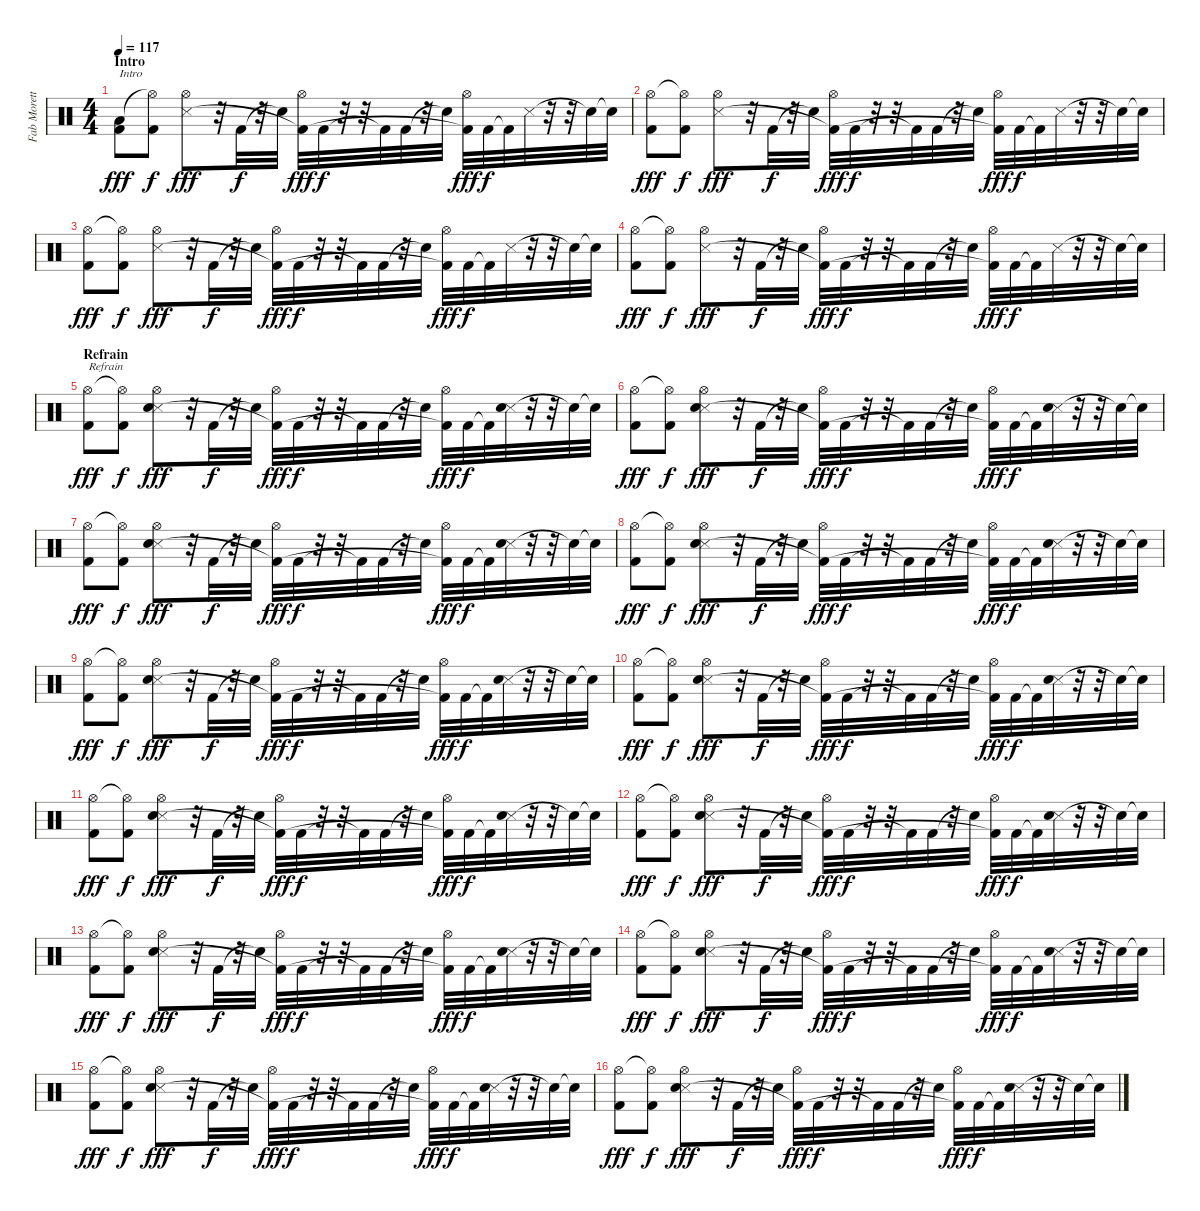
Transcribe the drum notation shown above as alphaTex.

\track ("Fab Moretti" "Fab Morett") {instrument percussion}
\staff {score}
\articulation defaults
\ts (4 4)
\section ("" "Intro")
\tempo 117
\clef neutral
\ks c
("Low Tom (hit)" "Kick (hit) 2").8{txt "Intro" dy fff} ("Hi-Hat (open)"{t} "Kick (hit) 2").8{dy f} ("Hi-Hat (open)" "Snare (side stick) 3").8{dy fff} r.32 "Kick (hit) 2".32{dy f} r.32 "Snare (hit)"{t}.32 ("Hi-Hat (open)" "Kick (hit) 2"{t}).32{dy fff} "Kick (hit) 2".32{dy f} r.32 r.32 "Kick (hit) 2"{t}.32 "Kick (hit) 2".32 r.32 "Snare (hit)"{t}.32 ("Hi-Hat (open)" "Kick (hit) 2"{t}).32{dy fff} "Kick (hit) 2".32{dy f} "Kick (hit) 2"{t}.32 "Snare (side stick) 3".32 r.32 r.32 "Snare (hit)"{t}.32 "Snare (hit)"{t}.32 |
("Hi-Hat (open)" "Kick (hit) 2").8{dy fff} ("Hi-Hat (open)"{t} "Kick (hit) 2").8{dy f} ("Hi-Hat (open)" "Snare (side stick) 3").8{dy fff} r.32 "Kick (hit) 2".32{dy f} r.32 "Snare (hit)"{t}.32 ("Hi-Hat (open)" "Kick (hit) 2"{t}).32{dy fff} "Kick (hit) 2".32{dy f} r.32 r.32 "Kick (hit) 2"{t}.32 "Kick (hit) 2".32 r.32 "Snare (hit)"{t}.32 ("Hi-Hat (open)" "Kick (hit) 2"{t}).32{dy fff} "Kick (hit) 2".32{dy f} "Kick (hit) 2"{t}.32 "Snare (side stick) 3".32 r.32 r.32 "Snare (hit)"{t}.32 "Snare (hit)"{t}.32 |
("Hi-Hat (open)" "Kick (hit) 2").8{dy fff} ("Hi-Hat (open)"{t} "Kick (hit) 2").8{dy f} ("Hi-Hat (open)" "Snare (side stick) 3").8{dy fff} r.32 "Kick (hit) 2".32{dy f} r.32 "Snare (hit)"{t}.32 ("Hi-Hat (open)" "Kick (hit) 2"{t}).32{dy fff} "Kick (hit) 2".32{dy f} r.32 r.32 "Kick (hit) 2"{t}.32 "Kick (hit) 2".32 r.32 "Snare (hit)"{t}.32 ("Hi-Hat (open)" "Kick (hit) 2"{t}).32{dy fff} "Kick (hit) 2".32{dy f} "Kick (hit) 2"{t}.32 "Snare (side stick) 3".32 r.32 r.32 "Snare (hit)"{t}.32 "Snare (hit)"{t}.32 |
("Hi-Hat (open)" "Kick (hit) 2").8{dy fff} ("Hi-Hat (open)"{t} "Kick (hit) 2").8{dy f} ("Hi-Hat (open)" "Snare (side stick) 3").8{dy fff} r.32 "Kick (hit) 2".32{dy f} r.32 "Snare (hit)"{t}.32 ("Hi-Hat (open)" "Kick (hit) 2"{t}).32{dy fff} "Kick (hit) 2".32{dy f} r.32 r.32 "Kick (hit) 2"{t}.32 "Kick (hit) 2".32 r.32 "Snare (hit)"{t}.32 ("Hi-Hat (open)" "Kick (hit) 2"{t}).32{dy fff} "Kick (hit) 2".32{dy f} "Kick (hit) 2"{t}.32 "Snare (side stick) 3".32 r.32 r.32 "Snare (hit)"{t}.32 "Snare (hit)"{t}.32 |
\section ("" "Refrain")
("Hi-Hat (open)" "Kick (hit) 2").8{txt "Refrain" dy fff} ("Hi-Hat (open)"{t} "Kick (hit) 2").8{dy f} ("Hi-Hat (open)" "Snare (side stick) 3" "Snare (hit) 2").8{dy fff} r.32 "Kick (hit) 2".32{dy f} r.32 "Snare (hit)"{t}.32 ("Hi-Hat (open)" "Kick (hit) 2"{t}).32{dy fff} "Kick (hit) 2".32{dy f} r.32 r.32 "Kick (hit) 2"{t}.32 "Kick (hit) 2".32 r.32 "Snare (hit)"{t}.32 ("Hi-Hat (open)" "Kick (hit) 2"{t}).32{dy fff} "Kick (hit) 2".32{dy f} "Kick (hit) 2"{t}.32 ("Snare (side stick) 3" "Snare (hit) 2").32 r.32 r.32 "Snare (hit)"{t}.32 "Snare (hit)"{t}.32 |
("Hi-Hat (open)" "Kick (hit) 2").8{dy fff} ("Hi-Hat (open)"{t} "Kick (hit) 2").8{dy f} ("Hi-Hat (open)" "Snare (side stick) 3" "Snare (hit) 2").8{dy fff} r.32 "Kick (hit) 2".32{dy f} r.32 "Snare (hit)"{t}.32 ("Hi-Hat (open)" "Kick (hit) 2"{t}).32{dy fff} "Kick (hit) 2".32{dy f} r.32 r.32 "Kick (hit) 2"{t}.32 "Kick (hit) 2".32 r.32 "Snare (hit)"{t}.32 ("Hi-Hat (open)" "Kick (hit) 2"{t}).32{dy fff} "Kick (hit) 2".32{dy f} "Kick (hit) 2"{t}.32 ("Snare (side stick) 3" "Snare (hit) 2").32 r.32 r.32 "Snare (hit)"{t}.32 "Snare (hit)"{t}.32 |
("Hi-Hat (open)" "Kick (hit) 2").8{dy fff} ("Hi-Hat (open)"{t} "Kick (hit) 2").8{dy f} ("Hi-Hat (open)" "Snare (side stick) 3" "Snare (hit) 2").8{dy fff} r.32 "Kick (hit) 2".32{dy f} r.32 "Snare (hit)"{t}.32 ("Hi-Hat (open)" "Kick (hit) 2"{t}).32{dy fff} "Kick (hit) 2".32{dy f} r.32 r.32 "Kick (hit) 2"{t}.32 "Kick (hit) 2".32 r.32 "Snare (hit)"{t}.32 ("Hi-Hat (open)" "Kick (hit) 2"{t}).32{dy fff} "Kick (hit) 2".32{dy f} "Kick (hit) 2"{t}.32 ("Snare (side stick) 3" "Snare (hit) 2").32 r.32 r.32 "Snare (hit)"{t}.32 "Snare (hit)"{t}.32 |
("Hi-Hat (open)" "Kick (hit) 2").8{dy fff} ("Hi-Hat (open)"{t} "Kick (hit) 2").8{dy f} ("Hi-Hat (open)" "Snare (side stick) 3" "Snare (hit) 2").8{dy fff} r.32 "Kick (hit) 2".32{dy f} r.32 "Snare (hit)"{t}.32 ("Hi-Hat (open)" "Kick (hit) 2"{t}).32{dy fff} "Kick (hit) 2".32{dy f} r.32 r.32 "Kick (hit) 2"{t}.32 "Kick (hit) 2".32 r.32 "Snare (hit)"{t}.32 ("Hi-Hat (open)" "Kick (hit) 2"{t}).32{dy fff} "Kick (hit) 2".32{dy f} "Kick (hit) 2"{t}.32 ("Snare (side stick) 3" "Snare (hit) 2").32 r.32 r.32 "Snare (hit)"{t}.32 "Snare (hit)"{t}.32 |
("Hi-Hat (open)" "Kick (hit) 2").8{dy fff} ("Hi-Hat (open)"{t} "Kick (hit) 2").8{dy f} ("Hi-Hat (open)" "Snare (side stick) 3" "Snare (hit) 2").8{dy fff} r.32 "Kick (hit) 2".32{dy f} r.32 "Snare (hit)"{t}.32 ("Hi-Hat (open)" "Kick (hit) 2"{t}).32{dy fff} "Kick (hit) 2".32{dy f} r.32 r.32 "Kick (hit) 2"{t}.32 "Kick (hit) 2".32 r.32 "Snare (hit)"{t}.32 ("Hi-Hat (open)" "Kick (hit) 2"{t}).32{dy fff} "Kick (hit) 2".32{dy f} "Kick (hit) 2"{t}.32 ("Snare (side stick) 3" "Snare (hit) 2").32 r.32 r.32 "Snare (hit)"{t}.32 "Snare (hit)"{t}.32 |
("Hi-Hat (open)" "Kick (hit) 2").8{dy fff} ("Hi-Hat (open)"{t} "Kick (hit) 2").8{dy f} ("Hi-Hat (open)" "Snare (side stick) 3" "Snare (hit) 2").8{dy fff} r.32 "Kick (hit) 2".32{dy f} r.32 "Snare (hit)"{t}.32 ("Hi-Hat (open)" "Kick (hit) 2"{t}).32{dy fff} "Kick (hit) 2".32{dy f} r.32 r.32 "Kick (hit) 2"{t}.32 "Kick (hit) 2".32 r.32 "Snare (hit)"{t}.32 ("Hi-Hat (open)" "Kick (hit) 2"{t}).32{dy fff} "Kick (hit) 2".32{dy f} "Kick (hit) 2"{t}.32 ("Snare (side stick) 3" "Snare (hit) 2").32 r.32 r.32 "Snare (hit)"{t}.32 "Snare (hit)"{t}.32 |
("Hi-Hat (open)" "Kick (hit) 2").8{dy fff} ("Hi-Hat (open)"{t} "Kick (hit) 2").8{dy f} ("Hi-Hat (open)" "Snare (side stick) 3" "Snare (hit) 2").8{dy fff} r.32 "Kick (hit) 2".32{dy f} r.32 "Snare (hit)"{t}.32 ("Hi-Hat (open)" "Kick (hit) 2"{t}).32{dy fff} "Kick (hit) 2".32{dy f} r.32 r.32 "Kick (hit) 2"{t}.32 "Kick (hit) 2".32 r.32 "Snare (hit)"{t}.32 ("Hi-Hat (open)" "Kick (hit) 2"{t}).32{dy fff} "Kick (hit) 2".32{dy f} "Kick (hit) 2"{t}.32 ("Snare (side stick) 3" "Snare (hit) 2").32 r.32 r.32 "Snare (hit)"{t}.32 "Snare (hit)"{t}.32 |
("Hi-Hat (open)" "Kick (hit) 2").8{dy fff} ("Hi-Hat (open)"{t} "Kick (hit) 2").8{dy f} ("Hi-Hat (open)" "Snare (side stick) 3" "Snare (hit) 2").8{dy fff} r.32 "Kick (hit) 2".32{dy f} r.32 "Snare (hit)"{t}.32 ("Hi-Hat (open)" "Kick (hit) 2"{t}).32{dy fff} "Kick (hit) 2".32{dy f} r.32 r.32 "Kick (hit) 2"{t}.32 "Kick (hit) 2".32 r.32 "Snare (hit)"{t}.32 ("Hi-Hat (open)" "Kick (hit) 2"{t}).32{dy fff} "Kick (hit) 2".32{dy f} "Kick (hit) 2"{t}.32 ("Snare (side stick) 3" "Snare (hit) 2").32 r.32 r.32 "Snare (hit)"{t}.32 "Snare (hit)"{t}.32 |
("Hi-Hat (open)" "Kick (hit) 2").8{dy fff} ("Hi-Hat (open)"{t} "Kick (hit) 2").8{dy f} ("Hi-Hat (open)" "Snare (side stick) 3" "Snare (hit) 2").8{dy fff} r.32 "Kick (hit) 2".32{dy f} r.32 "Snare (hit)"{t}.32 ("Hi-Hat (open)" "Kick (hit) 2"{t}).32{dy fff} "Kick (hit) 2".32{dy f} r.32 r.32 "Kick (hit) 2"{t}.32 "Kick (hit) 2".32 r.32 "Snare (hit)"{t}.32 ("Hi-Hat (open)" "Kick (hit) 2"{t}).32{dy fff} "Kick (hit) 2".32{dy f} "Kick (hit) 2"{t}.32 ("Snare (side stick) 3" "Snare (hit) 2").32 r.32 r.32 "Snare (hit)"{t}.32 "Snare (hit)"{t}.32 |
("Hi-Hat (open)" "Kick (hit) 2").8{dy fff} ("Hi-Hat (open)"{t} "Kick (hit) 2").8{dy f} ("Hi-Hat (open)" "Snare (side stick) 3" "Snare (hit) 2").8{dy fff} r.32 "Kick (hit) 2".32{dy f} r.32 "Snare (hit)"{t}.32 ("Hi-Hat (open)" "Kick (hit) 2"{t}).32{dy fff} "Kick (hit) 2".32{dy f} r.32 r.32 "Kick (hit) 2"{t}.32 "Kick (hit) 2".32 r.32 "Snare (hit)"{t}.32 ("Hi-Hat (open)" "Kick (hit) 2"{t}).32{dy fff} "Kick (hit) 2".32{dy f} "Kick (hit) 2"{t}.32 ("Snare (side stick) 3" "Snare (hit) 2").32 r.32 r.32 "Snare (hit)"{t}.32 "Snare (hit)"{t}.32 |
("Hi-Hat (open)" "Kick (hit) 2").8{dy fff} ("Hi-Hat (open)"{t} "Kick (hit) 2").8{dy f} ("Hi-Hat (open)" "Snare (side stick) 3" "Snare (hit) 2").8{dy fff} r.32 "Kick (hit) 2".32{dy f} r.32 "Snare (hit)"{t}.32 ("Hi-Hat (open)" "Kick (hit) 2"{t}).32{dy fff} "Kick (hit) 2".32{dy f} r.32 r.32 "Kick (hit) 2"{t}.32 "Kick (hit) 2".32 r.32 "Snare (hit)"{t}.32 ("Hi-Hat (open)" "Kick (hit) 2"{t}).32{dy fff} "Kick (hit) 2".32{dy f} "Kick (hit) 2"{t}.32 ("Snare (side stick) 3" "Snare (hit) 2").32 r.32 r.32 "Snare (hit)"{t}.32 "Snare (hit)"{t}.32 |
("Hi-Hat (open)" "Kick (hit) 2").8{dy fff} ("Hi-Hat (open)"{t} "Kick (hit) 2").8{dy f} ("Hi-Hat (open)" "Snare (side stick) 3" "Snare (hit) 2").8{dy fff} r.32 "Kick (hit) 2".32{dy f} r.32 "Snare (hit)"{t}.32 ("Hi-Hat (open)" "Kick (hit) 2"{t}).32{dy fff} "Kick (hit) 2".32{dy f} r.32 r.32 "Kick (hit) 2"{t}.32 "Kick (hit) 2".32 r.32 "Snare (hit)"{t}.32 ("Hi-Hat (open)" "Kick (hit) 2"{t}).32{dy fff} "Kick (hit) 2".32{dy f} "Kick (hit) 2"{t}.32 ("Snare (side stick) 3" "Snare (hit) 2").32 r.32 r.32 "Snare (hit)"{t}.32 "Snare (hit)"{t}.32
